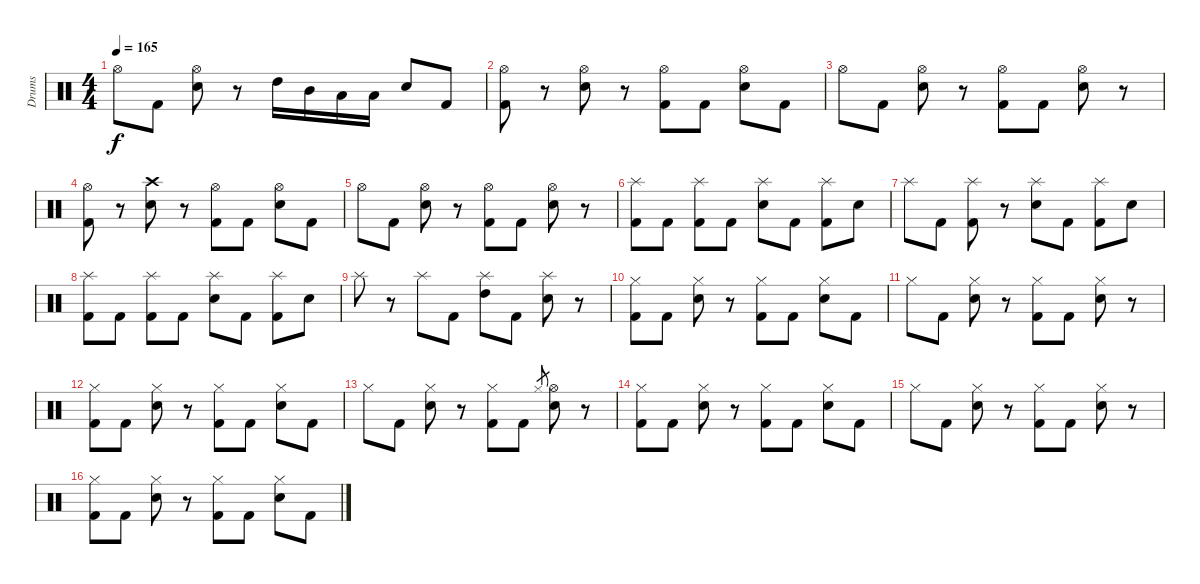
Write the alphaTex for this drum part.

\track ("Drums" "Drums") {instrument percussion}
\staff {score}
\articulation defaults
\ts (4 4)
\tempo 165
\clef neutral
\ks c "Hi-Hat (open)".8{dy f} "Kick (hit) 2".8
("Hi-Hat (open)" "Electric Snare (hit)").8 r.8 "High Tom (hit)".16 "Mid Tom (hit)".16 "Low Tom (hit)".16 "Low Tom (hit)".16 "Electric Snare (hit)".8 "Kick (hit) 2".8 |
("Hi-Hat (open)" "Kick (hit) 2").8 r.8 ("Hi-Hat (open)" "Electric Snare (hit)").8 r.8 ("Hi-Hat (open)" "Kick (hit) 2").8 "Kick (hit) 2".8 ("Hi-Hat (open)" "Electric Snare (hit)").8 "Kick (hit) 2".8 |
"Hi-Hat (open)".8 "Kick (hit) 2".8 ("Hi-Hat (open)" "Electric Snare (hit)").8 r.8 ("Hi-Hat (open)" "Kick (hit) 2").8 "Kick (hit) 2".8 ("Hi-Hat (open)" "Electric Snare (hit)").8 r.8 |
("Hi-Hat (open)" "Kick (hit) 2").8 r.8 ("Crash high (hit)" "Electric Snare (hit)").8 r.8 ("Hi-Hat (open)" "Kick (hit) 2").8 "Kick (hit) 2".8 ("Hi-Hat (open)" "Electric Snare (hit)").8 "Kick (hit) 2".8 |
"Hi-Hat (open)".8 "Kick (hit) 2".8 ("Hi-Hat (open)" "Electric Snare (hit)").8 r.8 ("Hi-Hat (open)" "Kick (hit) 2").8 "Kick (hit) 2".8 ("Hi-Hat (open)" "Electric Snare (hit)").8 r.8 |
("Splash (hit)" "Kick (hit) 2").8 "Kick (hit) 2".8 ("Splash (hit)" "Kick (hit) 2").8 "Kick (hit) 2".8 ("Splash (hit)" "Electric Snare (hit)").8 "Kick (hit) 2".8 ("Splash (hit)" "Kick (hit) 2").8 "Electric Snare (hit)".8 |
"Splash (hit)".8 "Kick (hit) 2".8 ("Splash (hit)" "Kick (hit) 2").8 r.8 ("Splash (hit)" "Electric Snare (hit)").8 "Kick (hit) 2".8 ("Splash (hit)" "Kick (hit) 2").8 "Electric Snare (hit)".8 |
("Splash (hit)" "Kick (hit) 2").8 "Kick (hit) 2".8 ("Splash (hit)" "Kick (hit) 2").8 "Kick (hit) 2".8 ("Splash (hit)" "Electric Snare (hit)").8 "Kick (hit) 2".8 ("Splash (hit)" "Kick (hit) 2").8 "Electric Snare (hit)".8 |
"Splash (hit)".8 r.8 "Splash (hit)".8 "Kick (hit) 2".8 ("Splash (hit)" "High Tom (hit)").8 "Kick (hit) 2".8 ("Splash (hit)" "Electric Snare (hit)").8 r.8 |
("Hi-Hat (closed)" "Kick (hit) 2").8 "Kick (hit) 2".8 ("Hi-Hat (closed)" "Electric Snare (hit)").8 r.8 ("Hi-Hat (closed)" "Kick (hit) 2").8 "Kick (hit) 2".8 ("Hi-Hat (closed)" "Electric Snare (hit)").8 "Kick (hit) 2".8 |
"Hi-Hat (closed)".8 "Kick (hit) 2".8 ("Hi-Hat (closed)" "Electric Snare (hit)").8 r.8 ("Hi-Hat (closed)" "Kick (hit) 2").8 "Kick (hit) 2".8 ("Hi-Hat (closed)" "Electric Snare (hit)").8 r.8 |
("Hi-Hat (closed)" "Kick (hit) 2").8 "Kick (hit) 2".8 ("Hi-Hat (closed)" "Electric Snare (hit)").8 r.8 ("Hi-Hat (closed)" "Kick (hit) 2").8 "Kick (hit) 2".8 ("Hi-Hat (closed)" "Electric Snare (hit)").8 "Kick (hit) 2".8 |
"Hi-Hat (closed)".8 "Kick (hit) 2".8 ("Hi-Hat (closed)" "Electric Snare (hit)").8 r.8 ("Hi-Hat (closed)" "Kick (hit) 2").8 "Kick (hit) 2".8 "Hi-Hat (closed)".8{gr} ("Hi-Hat (open)" "Electric Snare (hit)").8 r.8 |
("Hi-Hat (closed)" "Kick (hit) 2").8 "Kick (hit) 2".8 ("Hi-Hat (closed)" "Electric Snare (hit)").8 r.8 ("Hi-Hat (closed)" "Kick (hit) 2").8 "Kick (hit) 2".8 ("Hi-Hat (closed)" "Electric Snare (hit)").8 "Kick (hit) 2".8 |
"Hi-Hat (closed)".8 "Kick (hit) 2".8 ("Hi-Hat (closed)" "Electric Snare (hit)").8 r.8 ("Hi-Hat (closed)" "Kick (hit) 2").8 "Kick (hit) 2".8 ("Hi-Hat (closed)" "Electric Snare (hit)").8 r.8 |
("Hi-Hat (closed)" "Kick (hit) 2").8 "Kick (hit) 2".8 ("Hi-Hat (closed)" "Electric Snare (hit)").8 r.8 ("Hi-Hat (closed)" "Kick (hit) 2").8 "Kick (hit) 2".8 ("Hi-Hat (closed)" "Electric Snare (hit)").8 "Kick (hit) 2".8
